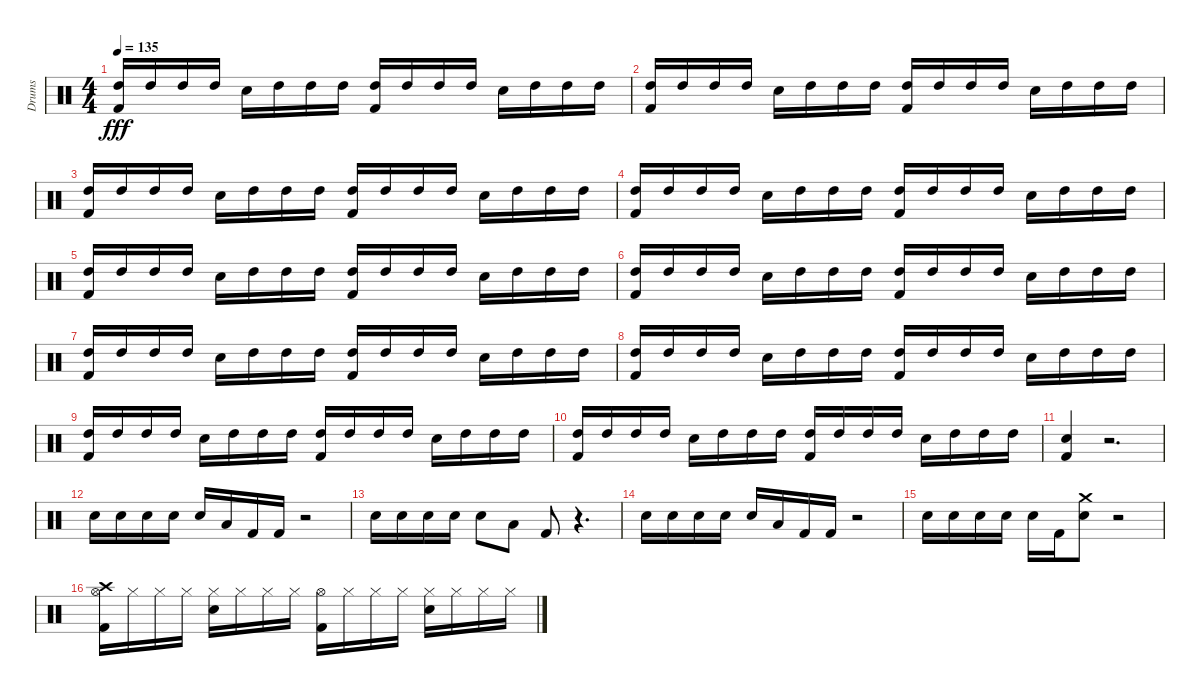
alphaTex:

\track ("Drums" "Drums") {instrument percussion}
\staff {score}
\articulation defaults
\ts (4 4)
\tempo 135
\clef neutral
\ks c
("High Tom (hit)" "Kick (hit) 2").16{dy fff} "High Tom (hit)".16 "High Tom (hit)".16 "High Tom (hit)".16 "Snare (hit) 2".16 "High Tom (hit)".16 "High Tom (hit)".16 "High Tom (hit)".16 ("Kick (hit) 2" "High Tom (hit)").16 "High Tom (hit)".16 "High Tom (hit)".16 "High Tom (hit)".16 "Snare (hit) 2".16 "High Tom (hit)".16 "High Tom (hit)".16 "High Tom (hit)".16 |
("High Tom (hit)" "Kick (hit) 2").16 "High Tom (hit)".16 "High Tom (hit)".16 "High Tom (hit)".16 "Snare (hit) 2".16 "High Tom (hit)".16 "High Tom (hit)".16 "High Tom (hit)".16 ("Kick (hit) 2" "High Tom (hit)").16 "High Tom (hit)".16 "High Tom (hit)".16 "High Tom (hit)".16 "Snare (hit) 2".16 "High Tom (hit)".16 "High Tom (hit)".16 "High Tom (hit)".16 |
("High Tom (hit)" "Kick (hit) 2").16 "High Tom (hit)".16 "High Tom (hit)".16 "High Tom (hit)".16 "Snare (hit) 2".16 "High Tom (hit)".16 "High Tom (hit)".16 "High Tom (hit)".16 ("Kick (hit) 2" "High Tom (hit)").16 "High Tom (hit)".16 "High Tom (hit)".16 "High Tom (hit)".16 "Snare (hit) 2".16 "High Tom (hit)".16 "High Tom (hit)".16 "High Tom (hit)".16 |
("High Tom (hit)" "Kick (hit) 2").16 "High Tom (hit)".16 "High Tom (hit)".16 "High Tom (hit)".16 "Snare (hit) 2".16 "High Tom (hit)".16 "High Tom (hit)".16 "High Tom (hit)".16 ("Kick (hit) 2" "High Tom (hit)").16 "High Tom (hit)".16 "High Tom (hit)".16 "High Tom (hit)".16 "Snare (hit) 2".16 "High Tom (hit)".16 "High Tom (hit)".16 "High Tom (hit)".16 |
("High Tom (hit)" "Kick (hit) 2").16 "High Tom (hit)".16 "High Tom (hit)".16 "High Tom (hit)".16 "Snare (hit) 2".16 "High Tom (hit)".16 "High Tom (hit)".16 "High Tom (hit)".16 ("Kick (hit) 2" "High Tom (hit)").16 "High Tom (hit)".16 "High Tom (hit)".16 "High Tom (hit)".16 "Snare (hit) 2".16 "High Tom (hit)".16 "High Tom (hit)".16 "High Tom (hit)".16 |
("High Tom (hit)" "Kick (hit) 2").16 "High Tom (hit)".16 "High Tom (hit)".16 "High Tom (hit)".16 "Snare (hit) 2".16 "High Tom (hit)".16 "High Tom (hit)".16 "High Tom (hit)".16 ("Kick (hit) 2" "High Tom (hit)").16 "High Tom (hit)".16 "High Tom (hit)".16 "High Tom (hit)".16 "Snare (hit) 2".16 "High Tom (hit)".16 "High Tom (hit)".16 "High Tom (hit)".16 |
("High Tom (hit)" "Kick (hit) 2").16 "High Tom (hit)".16 "High Tom (hit)".16 "High Tom (hit)".16 "Snare (hit) 2".16 "High Tom (hit)".16 "High Tom (hit)".16 "High Tom (hit)".16 ("Kick (hit) 2" "High Tom (hit)").16 "High Tom (hit)".16 "High Tom (hit)".16 "High Tom (hit)".16 "Snare (hit) 2".16 "High Tom (hit)".16 "High Tom (hit)".16 "High Tom (hit)".16 |
("High Tom (hit)" "Kick (hit) 2").16 "High Tom (hit)".16 "High Tom (hit)".16 "High Tom (hit)".16 "Snare (hit) 2".16 "High Tom (hit)".16 "High Tom (hit)".16 "High Tom (hit)".16 ("Kick (hit) 2" "High Tom (hit)").16 "High Tom (hit)".16 "High Tom (hit)".16 "High Tom (hit)".16 "Snare (hit) 2".16 "High Tom (hit)".16 "High Tom (hit)".16 "High Tom (hit)".16 |
("High Tom (hit)" "Kick (hit) 2").16 "High Tom (hit)".16 "High Tom (hit)".16 "High Tom (hit)".16 "Snare (hit) 2".16 "High Tom (hit)".16 "High Tom (hit)".16 "High Tom (hit)".16 ("Kick (hit) 2" "High Tom (hit)").16 "High Tom (hit)".16 "High Tom (hit)".16 "High Tom (hit)".16 "Snare (hit) 2".16 "High Tom (hit)".16 "High Tom (hit)".16 "High Tom (hit)".16 |
("High Tom (hit)" "Kick (hit) 2").16 "High Tom (hit)".16 "High Tom (hit)".16 "High Tom (hit)".16 "Snare (hit) 2".16 "High Tom (hit)".16 "High Tom (hit)".16 "High Tom (hit)".16 ("Kick (hit) 2" "High Tom (hit)").16 "High Tom (hit)".16 "High Tom (hit)".16 "High Tom (hit)".16 "Snare (hit) 2".16 "High Tom (hit)".16 "High Tom (hit)".16 "High Tom (hit)".16 |
("Kick (hit) 2" "Snare (hit) 2").4 r.2{d} |
"Snare (hit) 2".16 "Snare (hit) 2".16 "Snare (hit) 2".16 "Snare (hit) 2".16 "Snare (hit) 2".16 "Low Floor Tom (hit)".16 "Kick (hit) 2".16 "Kick (hit) 2".16 r.2 |
"Snare (hit) 2".16 "Snare (hit) 2".16 "Snare (hit) 2".16 "Snare (hit) 2".16 "Snare (hit) 2".8 "Low Floor Tom (hit)".8 "Kick (hit) 2".8 r.4{d} |
"Snare (hit) 2".16 "Snare (hit) 2".16 "Snare (hit) 2".16 "Snare (hit) 2".16 "Snare (hit) 2".16 "Low Floor Tom (hit)".16 "Kick (hit) 2".16 "Kick (hit) 2".16 r.2 |
"Snare (hit) 2".16 "Snare (hit) 2".16 "Snare (hit) 2".16 "Snare (hit) 2".16 "Snare (hit) 2".16 "Kick (hit) 2".16 ("Snare (hit) 2" "Crash medium (hit)").8 r.2 |
("Crash high (hit)" "Hi-Hat (open)" "Kick (hit) 2").16 "Hi-Hat (closed)".16 "Hi-Hat (closed)".16 "Hi-Hat (closed)".16 ("Snare (hit) 2" "Hi-Hat (closed)").16 "Hi-Hat (closed)".16 "Hi-Hat (closed)".16 "Hi-Hat (closed)".16 ("Kick (hit) 2" "Hi-Hat (open)").16 "Hi-Hat (closed)".16 "Hi-Hat (closed)".16 "Hi-Hat (closed)".16 ("Snare (hit) 2" "Hi-Hat (closed)").16 "Hi-Hat (closed)".16 "Hi-Hat (closed)".16 "Hi-Hat (closed)".16
